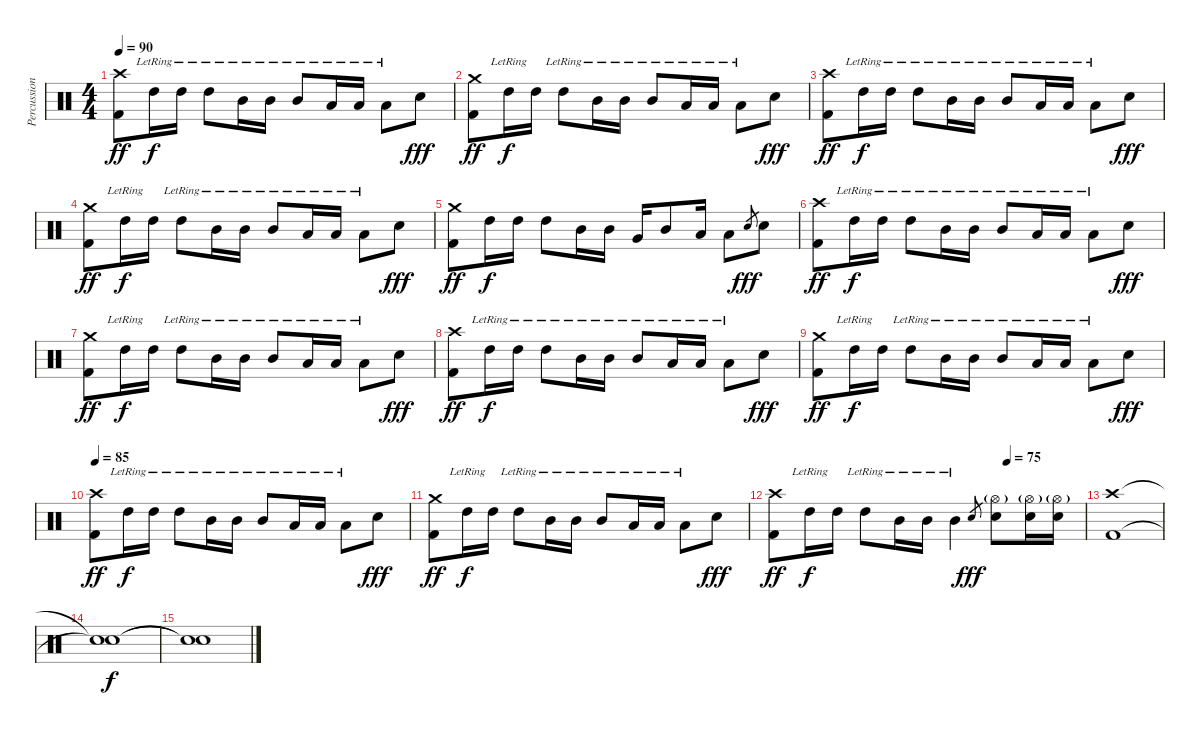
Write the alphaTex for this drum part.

\track ("Percussion" "Percussion") {instrument percussion}
\staff {score}
\articulation defaults
\ts (4 4)
\tempo 90
\clef neutral
\ks c
("Crash high (hit)" "Kick (hit) 2").8{dy ff} "High Tom (hit)"{lr}.16{dy f} "High Tom (hit)"{lr}.16 "High Tom (hit)"{lr}.8 "Mid Tom (hit)"{lr}.16 "Mid Tom (hit)"{lr}.16 "Mid Tom (hit)"{lr}.8 "Low Tom (hit)"{lr}.16 "Low Tom (hit)"{lr}.16 "Low Tom (hit)"{lr}.8 "Electric Snare (hit)".8{dy fff} |
("Crash medium (hit)" "Kick (hit) 2").8{dy ff} "High Tom (hit)"{lr}.16{dy f} "High Tom (hit)".16 "High Tom (hit)"{lr}.8 "Mid Tom (hit)"{lr}.16 "Mid Tom (hit)"{lr}.16 "Mid Tom (hit)"{lr}.8 "Low Tom (hit)"{lr}.16 "Low Tom (hit)"{lr}.16 "Low Tom (hit)"{lr}.8 "Electric Snare (hit)".8{dy fff} |
("Crash high (hit)" "Kick (hit) 2").8{dy ff} "High Tom (hit)"{lr}.16{dy f} "High Tom (hit)"{lr}.16 "High Tom (hit)"{lr}.8 "Mid Tom (hit)"{lr}.16 "Mid Tom (hit)"{lr}.16 "Mid Tom (hit)"{lr}.8 "Low Tom (hit)"{lr}.16 "Low Tom (hit)"{lr}.16 "Low Tom (hit)"{lr}.8 "Electric Snare (hit)".8{dy fff} |
("Crash medium (hit)" "Kick (hit) 2").8{dy ff} "High Tom (hit)"{lr}.16{dy f} "High Tom (hit)".16 "High Tom (hit)"{lr}.8 "Mid Tom (hit)"{lr}.16 "Mid Tom (hit)"{lr}.16 "Mid Tom (hit)"{lr}.8 "Low Tom (hit)"{lr}.16 "Low Tom (hit)"{lr}.16 "Low Tom (hit)"{lr}.8 "Electric Snare (hit)".8{dy fff} |
("Crash medium (hit)" "Kick (hit) 2").8{dy ff} "High Tom (hit)".16{dy f} "High Tom (hit)".16 "High Tom (hit)".8 "Mid Tom (hit)".16 "Mid Tom (hit)".16 "Very Low Tom (hit)".16 "Mid Tom (hit)".8 "Low Tom (hit)".16 "Low Tom (hit)".8 "Electric Snare (hit)".8{gr dy fff} "Electric Snare (hit)".8 |
("Crash high (hit)" "Kick (hit) 2").8{dy ff} "High Tom (hit)"{lr}.16{dy f} "High Tom (hit)"{lr}.16 "High Tom (hit)"{lr}.8 "Mid Tom (hit)"{lr}.16 "Mid Tom (hit)"{lr}.16 "Mid Tom (hit)"{lr}.8 "Low Tom (hit)"{lr}.16 "Low Tom (hit)"{lr}.16 "Low Tom (hit)"{lr}.8 "Electric Snare (hit)".8{dy fff} |
("Crash medium (hit)" "Kick (hit) 2").8{dy ff} "High Tom (hit)"{lr}.16{dy f} "High Tom (hit)".16 "High Tom (hit)"{lr}.8 "Mid Tom (hit)"{lr}.16 "Mid Tom (hit)"{lr}.16 "Mid Tom (hit)"{lr}.8 "Low Tom (hit)"{lr}.16 "Low Tom (hit)"{lr}.16 "Low Tom (hit)"{lr}.8 "Electric Snare (hit)".8{dy fff} |
("Crash high (hit)" "Kick (hit) 2").8{dy ff} "High Tom (hit)"{lr}.16{dy f} "High Tom (hit)"{lr}.16 "High Tom (hit)"{lr}.8 "Mid Tom (hit)"{lr}.16 "Mid Tom (hit)"{lr}.16 "Mid Tom (hit)"{lr}.8 "Low Tom (hit)"{lr}.16 "Low Tom (hit)"{lr}.16 "Low Tom (hit)"{lr}.8 "Electric Snare (hit)".8{dy fff} |
("Crash medium (hit)" "Kick (hit) 2").8{dy ff} "High Tom (hit)"{lr}.16{dy f} "High Tom (hit)".16 "High Tom (hit)"{lr}.8 "Mid Tom (hit)"{lr}.16 "Mid Tom (hit)"{lr}.16 "Mid Tom (hit)"{lr}.8 "Low Tom (hit)"{lr}.16 "Low Tom (hit)"{lr}.16 "Low Tom (hit)"{lr}.8 "Electric Snare (hit)".8{dy fff} |
\tempo 85
("Crash high (hit)" "Kick (hit) 2").8{dy ff} "High Tom (hit)"{lr}.16{dy f} "High Tom (hit)"{lr}.16 "High Tom (hit)"{lr}.8 "Mid Tom (hit)"{lr}.16 "Mid Tom (hit)"{lr}.16 "Mid Tom (hit)"{lr}.8 "Low Tom (hit)"{lr}.16 "Low Tom (hit)"{lr}.16 "Low Tom (hit)"{lr}.8 "Electric Snare (hit)".8{dy fff} |
("Crash medium (hit)" "Kick (hit) 2").8{dy ff} "High Tom (hit)"{lr}.16{dy f} "High Tom (hit)".16 "High Tom (hit)"{lr}.8 "Mid Tom (hit)"{lr}.16 "Mid Tom (hit)"{lr}.16 "Mid Tom (hit)"{lr}.8 "Low Tom (hit)"{lr}.16 "Low Tom (hit)"{lr}.16 "Low Tom (hit)"{lr}.8 "Electric Snare (hit)".8{dy fff} |
\tempo (75 0.75)
("Crash high (hit)" "Kick (hit) 2").8{dy ff} "High Tom (hit)"{lr}.16{dy f} "High Tom (hit)".16 "High Tom (hit)"{lr}.8 "Mid Tom (hit)"{lr}.16 "Mid Tom (hit)"{lr}.16 "Mid Tom (hit)"{lr}.4 "Electric Snare (hit)".8{gr dy fff} ("Hi-Hat (open)"{g} "Electric Snare (hit)").8 ("Hi-Hat (open)"{g} "Electric Snare (hit)").16 ("Hi-Hat (open)"{g} "Electric Snare (hit)").16 |
("Crash high (hit)" "Kick (hit) 2").1 |
("Snare (hit)"{t} "Snare (hit)"{t}).1{dy f} |
("Snare (hit)"{t} "Snare (hit)"{t}).1
